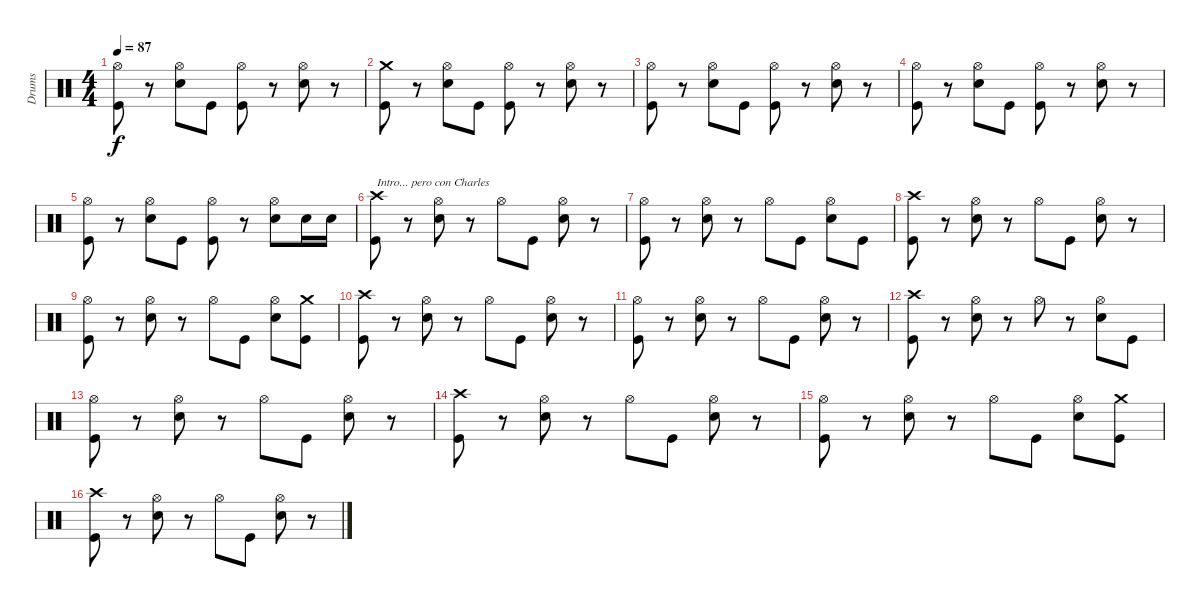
\track ("Drums" "Drums") {instrument percussion}
\staff {score}
\articulation defaults
\ts (4 4)
\tempo 87
\clef neutral
\ks c
("Hi-Hat (open)" "Kick (hit)").8{dy f} r.8 ("Hi-Hat (open)" "Electric Snare (hit)").8 "Kick (hit)".8 ("Hi-Hat (open)" "Kick (hit)").8 r.8 ("Hi-Hat (open)" "Electric Snare (hit)").8 r.8 |
("Crash medium (hit)" "Kick (hit)").8 r.8 ("Hi-Hat (open)" "Electric Snare (hit)").8 "Kick (hit)".8 ("Hi-Hat (open)" "Kick (hit)").8 r.8 ("Hi-Hat (open)" "Electric Snare (hit)").8 r.8 |
("Hi-Hat (open)" "Kick (hit)").8 r.8 ("Hi-Hat (open)" "Electric Snare (hit)").8 "Kick (hit)".8 ("Hi-Hat (open)" "Kick (hit)").8 r.8 ("Hi-Hat (open)" "Electric Snare (hit)").8 r.8 |
("Hi-Hat (open)" "Kick (hit)").8 r.8 ("Hi-Hat (open)" "Electric Snare (hit)").8 "Kick (hit)".8 ("Hi-Hat (open)" "Kick (hit)").8 r.8 ("Hi-Hat (open)" "Electric Snare (hit)").8 r.8 |
("Hi-Hat (open)" "Kick (hit)").8 r.8 ("Hi-Hat (open)" "Electric Snare (hit)").8 "Kick (hit)".8 ("Hi-Hat (open)" "Kick (hit)").8 r.8 ("Hi-Hat (open)" "Electric Snare (hit)").8 "Electric Snare (hit)".16 "Electric Snare (hit)".16 |
("Crash high (hit)" "Kick (hit)").8{txt "Intro... pero con Charles"} r.8 ("Hi-Hat (open)" "Electric Snare (hit)").8 r.8 "Hi-Hat (open)".8 "Kick (hit)".8 ("Hi-Hat (open)" "Electric Snare (hit)").8 r.8 |
("Hi-Hat (open)" "Kick (hit)").8 r.8 ("Hi-Hat (open)" "Electric Snare (hit)").8 r.8 "Hi-Hat (open)".8 "Kick (hit)".8 ("Hi-Hat (open)" "Electric Snare (hit)").8 "Kick (hit)".8 |
("Crash high (hit)" "Kick (hit)").8 r.8 ("Hi-Hat (open)" "Electric Snare (hit)").8 r.8 "Hi-Hat (open)".8 "Kick (hit)".8 ("Hi-Hat (open)" "Electric Snare (hit)").8 r.8 |
("Hi-Hat (open)" "Kick (hit)").8 r.8 ("Hi-Hat (open)" "Electric Snare (hit)").8 r.8 "Hi-Hat (open)".8 "Kick (hit)".8 ("Hi-Hat (open)" "Electric Snare (hit)").8 ("Crash medium (hit)" "Kick (hit)").8 |
("Crash high (hit)" "Kick (hit)").8 r.8 ("Hi-Hat (open)" "Electric Snare (hit)").8 r.8 "Hi-Hat (open)".8 "Kick (hit)".8 ("Hi-Hat (open)" "Electric Snare (hit)").8 r.8 |
("Hi-Hat (open)" "Kick (hit)").8 r.8 ("Hi-Hat (open)" "Electric Snare (hit)").8 r.8 "Hi-Hat (open)".8 "Kick (hit)".8 ("Hi-Hat (open)" "Electric Snare (hit)").8 r.8 |
("Crash high (hit)" "Kick (hit)").8 r.8 ("Hi-Hat (open)" "Electric Snare (hit)").8 r.8 "Hi-Hat (open)".8 r.8 ("Hi-Hat (open)" "Electric Snare (hit)").8 "Kick (hit)".8 |
("Hi-Hat (open)" "Kick (hit)").8 r.8 ("Hi-Hat (open)" "Electric Snare (hit)").8 r.8 "Hi-Hat (open)".8 "Kick (hit)".8 ("Hi-Hat (open)" "Electric Snare (hit)").8 r.8 |
("Crash high (hit)" "Kick (hit)").8 r.8 ("Hi-Hat (open)" "Electric Snare (hit)").8 r.8 "Hi-Hat (open)".8 "Kick (hit)".8 ("Hi-Hat (open)" "Electric Snare (hit)").8 r.8 |
("Hi-Hat (open)" "Kick (hit)").8 r.8 ("Hi-Hat (open)" "Electric Snare (hit)").8 r.8 "Hi-Hat (open)".8 "Kick (hit)".8 ("Hi-Hat (open)" "Electric Snare (hit)").8 ("Crash medium (hit)" "Kick (hit)").8 |
("Crash high (hit)" "Kick (hit)").8 r.8 ("Hi-Hat (open)" "Electric Snare (hit)").8 r.8 "Hi-Hat (open)".8 "Kick (hit)".8 ("Hi-Hat (open)" "Electric Snare (hit)").8 r.8
